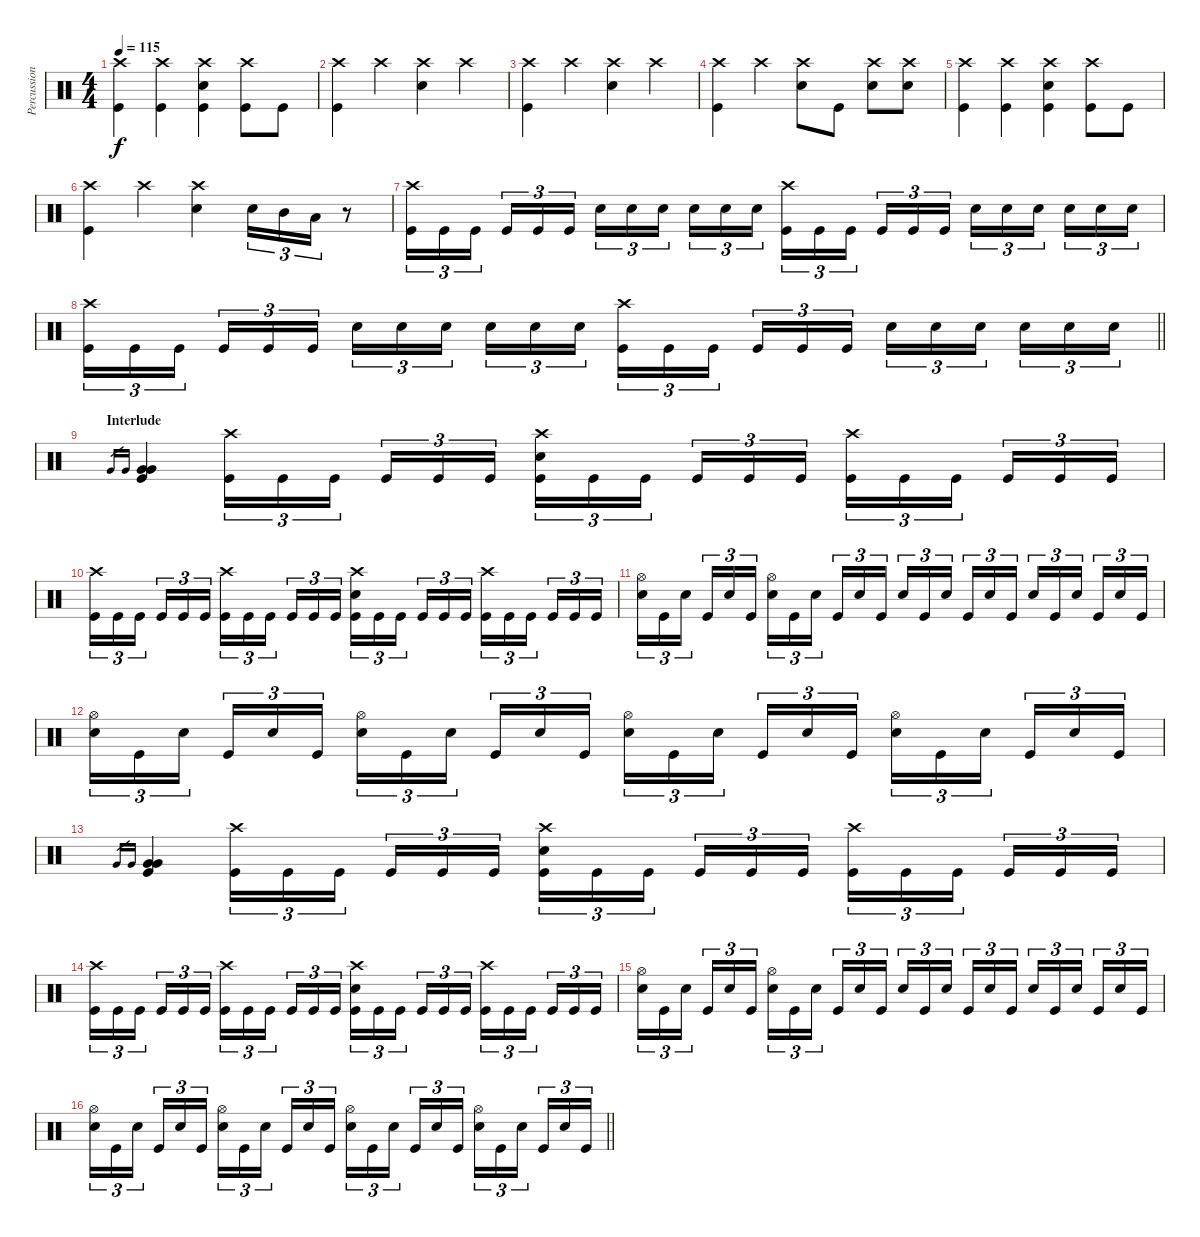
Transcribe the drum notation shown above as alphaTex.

\track ("Percussions" "Percussion") {instrument percussion}
\staff {score}
\articulation defaults
\ts (4 4)
\tempo 115
\clef neutral
\ks c
("Crash high (hit)" "Kick (hit)").4{dy f} ("Crash high (hit)" "Kick (hit)").4 ("Crash high (hit)" "Electric Snare (hit)" "Kick (hit)").4 ("Crash high (hit)" "Kick (hit)").8 "Kick (hit)".8 |
("Crash high (hit)" "Kick (hit)").4 "Crash high (hit)".4 ("Crash high (hit)" "Electric Snare (hit)").4 "Crash high (hit)".4 |
("Crash high (hit)" "Kick (hit)").4 "Crash high (hit)".4 ("Crash high (hit)" "Electric Snare (hit)").4 "Crash high (hit)".4 |
("Crash high (hit)" "Kick (hit)").4 "Crash high (hit)".4 ("Crash high (hit)" "Electric Snare (hit)").8 "Kick (hit)".8 ("Crash high (hit)" "Electric Snare (hit)").8 ("Crash high (hit)" "Electric Snare (hit)").8 |
("Crash high (hit)" "Kick (hit)").4 ("Crash high (hit)" "Kick (hit)").4 ("Crash high (hit)" "Electric Snare (hit)" "Kick (hit)").4 ("Crash high (hit)" "Kick (hit)").8 "Kick (hit)".8 |
("Crash high (hit)" "Kick (hit)").4 "Crash high (hit)".4 ("Crash high (hit)" "Electric Snare (hit)").4 "Electric Snare (hit)".16{tu (3 2)} "Mid Tom (hit)".16{tu (3 2)} "Low Tom (hit)".16{tu (3 2)} r.8 |
("Crash high (hit)" "Kick (hit)").16{tu (3 2)} "Kick (hit)".16{tu (3 2)} "Kick (hit)".16{tu (3 2) beam splitsecondary} "Kick (hit)".16{tu (3 2)} "Kick (hit)".16{tu (3 2)} "Kick (hit)".16{tu (3 2)} "Electric Snare (hit)".16{tu (3 2)} "Electric Snare (hit)".16{tu (3 2)} "Electric Snare (hit)".16{tu (3 2) beam splitsecondary} "Electric Snare (hit)".16{tu (3 2)} "Electric Snare (hit)".16{tu (3 2)} "Electric Snare (hit)".16{tu (3 2)} ("Crash high (hit)" "Kick (hit)").16{tu (3 2)} "Kick (hit)".16{tu (3 2)} "Kick (hit)".16{tu (3 2) beam splitsecondary} "Kick (hit)".16{tu (3 2)} "Kick (hit)".16{tu (3 2)} "Kick (hit)".16{tu (3 2)} "Electric Snare (hit)".16{tu (3 2)} "Electric Snare (hit)".16{tu (3 2)} "Electric Snare (hit)".16{tu (3 2) beam splitsecondary} "Electric Snare (hit)".16{tu (3 2)} "Electric Snare (hit)".16{tu (3 2)} "Electric Snare (hit)".16{tu (3 2)} |
\barLineRight lightlight
("Crash high (hit)" "Kick (hit)").16{tu (3 2)} "Kick (hit)".16{tu (3 2)} "Kick (hit)".16{tu (3 2) beam splitsecondary} "Kick (hit)".16{tu (3 2)} "Kick (hit)".16{tu (3 2)} "Kick (hit)".16{tu (3 2)} "Electric Snare (hit)".16{tu (3 2)} "Electric Snare (hit)".16{tu (3 2)} "Electric Snare (hit)".16{tu (3 2) beam splitsecondary} "Electric Snare (hit)".16{tu (3 2)} "Electric Snare (hit)".16{tu (3 2)} "Electric Snare (hit)".16{tu (3 2)} ("Crash high (hit)" "Kick (hit)").16{tu (3 2)} "Kick (hit)".16{tu (3 2)} "Kick (hit)".16{tu (3 2) beam splitsecondary} "Kick (hit)".16{tu (3 2)} "Kick (hit)".16{tu (3 2)} "Kick (hit)".16{tu (3 2)} "Electric Snare (hit)".16{tu (3 2)} "Electric Snare (hit)".16{tu (3 2)} "Electric Snare (hit)".16{tu (3 2) beam splitsecondary} "Electric Snare (hit)".16{tu (3 2)} "Electric Snare (hit)".16{tu (3 2)} "Electric Snare (hit)".16{tu (3 2)} |
\section ("" "Interlude")
"Very Low Tom (hit)".16{gr} "Very Low Tom (hit)".16{gr} ("Very Low Tom (hit)" "Very Low Tom (hit)" "Kick (hit)").4 ("Crash high (hit)" "Kick (hit)").16{tu (3 2)} "Kick (hit)".16{tu (3 2)} "Kick (hit)".16{tu (3 2) beam splitsecondary} "Kick (hit)".16{tu (3 2)} "Kick (hit)".16{tu (3 2)} "Kick (hit)".16{tu (3 2)} ("Crash high (hit)" "Electric Snare (hit)" "Kick (hit)").16{tu (3 2)} "Kick (hit)".16{tu (3 2)} "Kick (hit)".16{tu (3 2) beam splitsecondary} "Kick (hit)".16{tu (3 2)} "Kick (hit)".16{tu (3 2)} "Kick (hit)".16{tu (3 2)} ("Crash high (hit)" "Kick (hit)").16{tu (3 2)} "Kick (hit)".16{tu (3 2)} "Kick (hit)".16{tu (3 2) beam splitsecondary} "Kick (hit)".16{tu (3 2)} "Kick (hit)".16{tu (3 2)} "Kick (hit)".16{tu (3 2)} |
("Crash high (hit)" "Kick (hit)").16{tu (3 2)} "Kick (hit)".16{tu (3 2)} "Kick (hit)".16{tu (3 2) beam splitsecondary} "Kick (hit)".16{tu (3 2)} "Kick (hit)".16{tu (3 2)} "Kick (hit)".16{tu (3 2)} ("Crash high (hit)" "Kick (hit)").16{tu (3 2)} "Kick (hit)".16{tu (3 2)} "Kick (hit)".16{tu (3 2) beam splitsecondary} "Kick (hit)".16{tu (3 2)} "Kick (hit)".16{tu (3 2)} "Kick (hit)".16{tu (3 2)} ("Crash high (hit)" "Electric Snare (hit)" "Kick (hit)").16{tu (3 2)} "Kick (hit)".16{tu (3 2)} "Kick (hit)".16{tu (3 2) beam splitsecondary} "Kick (hit)".16{tu (3 2)} "Kick (hit)".16{tu (3 2)} "Kick (hit)".16{tu (3 2)} ("Crash high (hit)" "Kick (hit)").16{tu (3 2)} "Kick (hit)".16{tu (3 2)} "Kick (hit)".16{tu (3 2) beam splitsecondary} "Kick (hit)".16{tu (3 2)} "Kick (hit)".16{tu (3 2)} "Kick (hit)".16{tu (3 2)} |
("Hi-Hat (open)" "Electric Snare (hit)").16{tu (3 2)} "Kick (hit)".16{tu (3 2)} "Electric Snare (hit)".16{tu (3 2) beam splitsecondary} "Kick (hit)".16{tu (3 2)} "Electric Snare (hit)".16{tu (3 2)} "Kick (hit)".16{tu (3 2)} ("Hi-Hat (open)" "Electric Snare (hit)").16{tu (3 2)} "Kick (hit)".16{tu (3 2)} "Electric Snare (hit)".16{tu (3 2) beam splitsecondary} "Kick (hit)".16{tu (3 2)} "Electric Snare (hit)".16{tu (3 2)} "Kick (hit)".16{tu (3 2)} "Electric Snare (hit)".16{tu (3 2)} "Kick (hit)".16{tu (3 2)} "Electric Snare (hit)".16{tu (3 2) beam splitsecondary} "Kick (hit)".16{tu (3 2)} "Electric Snare (hit)".16{tu (3 2)} "Kick (hit)".16{tu (3 2)} "Electric Snare (hit)".16{tu (3 2)} "Kick (hit)".16{tu (3 2)} "Electric Snare (hit)".16{tu (3 2) beam splitsecondary} "Kick (hit)".16{tu (3 2)} "Electric Snare (hit)".16{tu (3 2)} "Kick (hit)".16{tu (3 2)} |
("Hi-Hat (open)" "Electric Snare (hit)").16{tu (3 2)} "Kick (hit)".16{tu (3 2)} "Electric Snare (hit)".16{tu (3 2) beam splitsecondary} "Kick (hit)".16{tu (3 2)} "Electric Snare (hit)".16{tu (3 2)} "Kick (hit)".16{tu (3 2)} ("Hi-Hat (open)" "Electric Snare (hit)").16{tu (3 2)} "Kick (hit)".16{tu (3 2)} "Electric Snare (hit)".16{tu (3 2) beam splitsecondary} "Kick (hit)".16{tu (3 2)} "Electric Snare (hit)".16{tu (3 2)} "Kick (hit)".16{tu (3 2)} ("Hi-Hat (open)" "Electric Snare (hit)").16{tu (3 2)} "Kick (hit)".16{tu (3 2)} "Electric Snare (hit)".16{tu (3 2) beam splitsecondary} "Kick (hit)".16{tu (3 2)} "Electric Snare (hit)".16{tu (3 2)} "Kick (hit)".16{tu (3 2)} ("Hi-Hat (open)" "Electric Snare (hit)").16{tu (3 2)} "Kick (hit)".16{tu (3 2)} "Electric Snare (hit)".16{tu (3 2) beam splitsecondary} "Kick (hit)".16{tu (3 2)} "Electric Snare (hit)".16{tu (3 2)} "Kick (hit)".16{tu (3 2)} |
"Very Low Tom (hit)".16{gr} "Very Low Tom (hit)".16{gr} ("Very Low Tom (hit)" "Very Low Tom (hit)" "Kick (hit)").4 ("Crash high (hit)" "Kick (hit)").16{tu (3 2)} "Kick (hit)".16{tu (3 2)} "Kick (hit)".16{tu (3 2) beam splitsecondary} "Kick (hit)".16{tu (3 2)} "Kick (hit)".16{tu (3 2)} "Kick (hit)".16{tu (3 2)} ("Crash high (hit)" "Electric Snare (hit)" "Kick (hit)").16{tu (3 2)} "Kick (hit)".16{tu (3 2)} "Kick (hit)".16{tu (3 2) beam splitsecondary} "Kick (hit)".16{tu (3 2)} "Kick (hit)".16{tu (3 2)} "Kick (hit)".16{tu (3 2)} ("Crash high (hit)" "Kick (hit)").16{tu (3 2)} "Kick (hit)".16{tu (3 2)} "Kick (hit)".16{tu (3 2) beam splitsecondary} "Kick (hit)".16{tu (3 2)} "Kick (hit)".16{tu (3 2)} "Kick (hit)".16{tu (3 2)} |
("Crash high (hit)" "Kick (hit)").16{tu (3 2)} "Kick (hit)".16{tu (3 2)} "Kick (hit)".16{tu (3 2) beam splitsecondary} "Kick (hit)".16{tu (3 2)} "Kick (hit)".16{tu (3 2)} "Kick (hit)".16{tu (3 2)} ("Crash high (hit)" "Kick (hit)").16{tu (3 2)} "Kick (hit)".16{tu (3 2)} "Kick (hit)".16{tu (3 2) beam splitsecondary} "Kick (hit)".16{tu (3 2)} "Kick (hit)".16{tu (3 2)} "Kick (hit)".16{tu (3 2)} ("Crash high (hit)" "Electric Snare (hit)" "Kick (hit)").16{tu (3 2)} "Kick (hit)".16{tu (3 2)} "Kick (hit)".16{tu (3 2) beam splitsecondary} "Kick (hit)".16{tu (3 2)} "Kick (hit)".16{tu (3 2)} "Kick (hit)".16{tu (3 2)} ("Crash high (hit)" "Kick (hit)").16{tu (3 2)} "Kick (hit)".16{tu (3 2)} "Kick (hit)".16{tu (3 2) beam splitsecondary} "Kick (hit)".16{tu (3 2)} "Kick (hit)".16{tu (3 2)} "Kick (hit)".16{tu (3 2)} |
("Hi-Hat (open)" "Electric Snare (hit)").16{tu (3 2)} "Kick (hit)".16{tu (3 2)} "Electric Snare (hit)".16{tu (3 2) beam splitsecondary} "Kick (hit)".16{tu (3 2)} "Electric Snare (hit)".16{tu (3 2)} "Kick (hit)".16{tu (3 2)} ("Hi-Hat (open)" "Electric Snare (hit)").16{tu (3 2)} "Kick (hit)".16{tu (3 2)} "Electric Snare (hit)".16{tu (3 2) beam splitsecondary} "Kick (hit)".16{tu (3 2)} "Electric Snare (hit)".16{tu (3 2)} "Kick (hit)".16{tu (3 2)} "Electric Snare (hit)".16{tu (3 2)} "Kick (hit)".16{tu (3 2)} "Electric Snare (hit)".16{tu (3 2) beam splitsecondary} "Kick (hit)".16{tu (3 2)} "Electric Snare (hit)".16{tu (3 2)} "Kick (hit)".16{tu (3 2)} "Electric Snare (hit)".16{tu (3 2)} "Kick (hit)".16{tu (3 2)} "Electric Snare (hit)".16{tu (3 2) beam splitsecondary} "Kick (hit)".16{tu (3 2)} "Electric Snare (hit)".16{tu (3 2)} "Kick (hit)".16{tu (3 2)} |
\barLineRight lightlight
("Hi-Hat (open)" "Electric Snare (hit)").16{tu (3 2)} "Kick (hit)".16{tu (3 2)} "Electric Snare (hit)".16{tu (3 2) beam splitsecondary} "Kick (hit)".16{tu (3 2)} "Electric Snare (hit)".16{tu (3 2)} "Kick (hit)".16{tu (3 2)} ("Hi-Hat (open)" "Electric Snare (hit)").16{tu (3 2)} "Kick (hit)".16{tu (3 2)} "Electric Snare (hit)".16{tu (3 2) beam splitsecondary} "Kick (hit)".16{tu (3 2)} "Electric Snare (hit)".16{tu (3 2)} "Kick (hit)".16{tu (3 2)} ("Hi-Hat (open)" "Electric Snare (hit)").16{tu (3 2)} "Kick (hit)".16{tu (3 2)} "Electric Snare (hit)".16{tu (3 2) beam splitsecondary} "Kick (hit)".16{tu (3 2)} "Electric Snare (hit)".16{tu (3 2)} "Kick (hit)".16{tu (3 2)} ("Hi-Hat (open)" "Electric Snare (hit)").16{tu (3 2)} "Kick (hit)".16{tu (3 2)} "Electric Snare (hit)".16{tu (3 2) beam splitsecondary} "Kick (hit)".16{tu (3 2)} "Electric Snare (hit)".16{tu (3 2)} "Kick (hit)".16{tu (3 2)}
